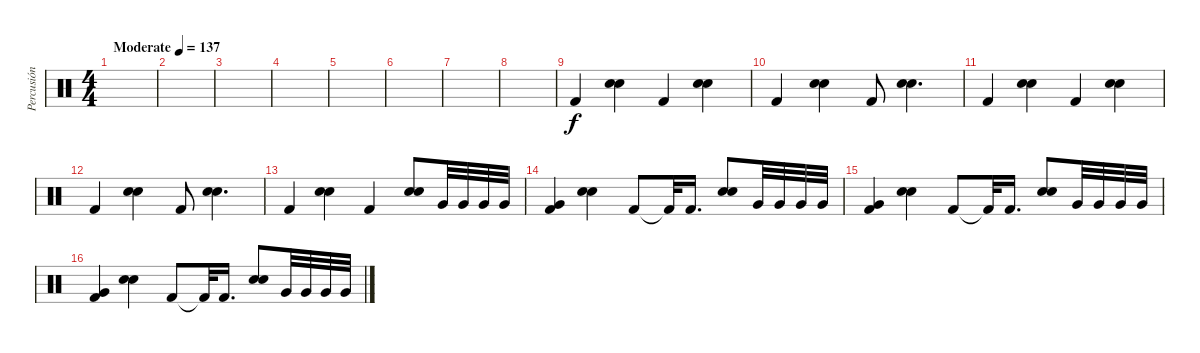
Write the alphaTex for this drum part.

\track ("Percusión" "Percusión") {instrument percussion}
\staff {score}
\articulation defaults
\ts (4 4)
\tempo (137 "Moderate")
\clef neutral
\ks c
|
|
|
|
|
|
|
|
"Kick (hit) 2".4 ("Electric Snare (hit)" "Electric Snare (hit)").4{bd 120} "Kick (hit) 2".4 ("Electric Snare (hit)" "Electric Snare (hit)").4{bd 120} |
"Kick (hit) 2".4 ("Electric Snare (hit)" "Electric Snare (hit)").4{bd 120} "Kick (hit) 2".8 ("Electric Snare (hit)" "Electric Snare (hit)").4{d bd 60} |
"Kick (hit) 2".4 ("Electric Snare (hit)" "Electric Snare (hit)").4{bd 120} "Kick (hit) 2".4 ("Electric Snare (hit)" "Electric Snare (hit)").4{bd 120} |
"Kick (hit) 2".4 ("Electric Snare (hit)" "Electric Snare (hit)").4{bd 120} "Kick (hit) 2".8 ("Electric Snare (hit)" "Electric Snare (hit)").4{d bd 60} |
"Kick (hit) 2".4 ("Electric Snare (hit)" "Electric Snare (hit)").4{bd 120} "Kick (hit) 2".4 ("Electric Snare (hit)" "Electric Snare (hit)").8{bd 60} "Very Low Tom (hit)".32 "Very Low Tom (hit)".32 "Very Low Tom (hit)".32 "Very Low Tom (hit)".32 |
("Very Low Tom (hit)" "Kick (hit) 2").4 ("Electric Snare (hit)" "Electric Snare (hit)").4{bd 60} "Kick (hit) 2".8 "Kick (hit) 2"{t}.32 "Kick (hit) 2".16{d} ("Electric Snare (hit)" "Electric Snare (hit)").8{bd 60} "Very Low Tom (hit)".32 "Very Low Tom (hit)".32 "Very Low Tom (hit)".32 "Very Low Tom (hit)".32 |
("Very Low Tom (hit)" "Kick (hit) 2").4 ("Electric Snare (hit)" "Electric Snare (hit)").4{bd 60} "Kick (hit) 2".8 "Kick (hit) 2"{t}.32 "Kick (hit) 2".16{d} ("Electric Snare (hit)" "Electric Snare (hit)").8{bd 60} "Very Low Tom (hit)".32 "Very Low Tom (hit)".32 "Very Low Tom (hit)".32 "Very Low Tom (hit)".32 |
("Very Low Tom (hit)" "Kick (hit) 2").4 ("Electric Snare (hit)" "Electric Snare (hit)").4{bd 60} "Kick (hit) 2".8 "Kick (hit) 2"{t}.32 "Kick (hit) 2".16{d} ("Electric Snare (hit)" "Electric Snare (hit)").8{bd 60} "Very Low Tom (hit)".32 "Very Low Tom (hit)".32 "Very Low Tom (hit)".32 "Very Low Tom (hit)".32
